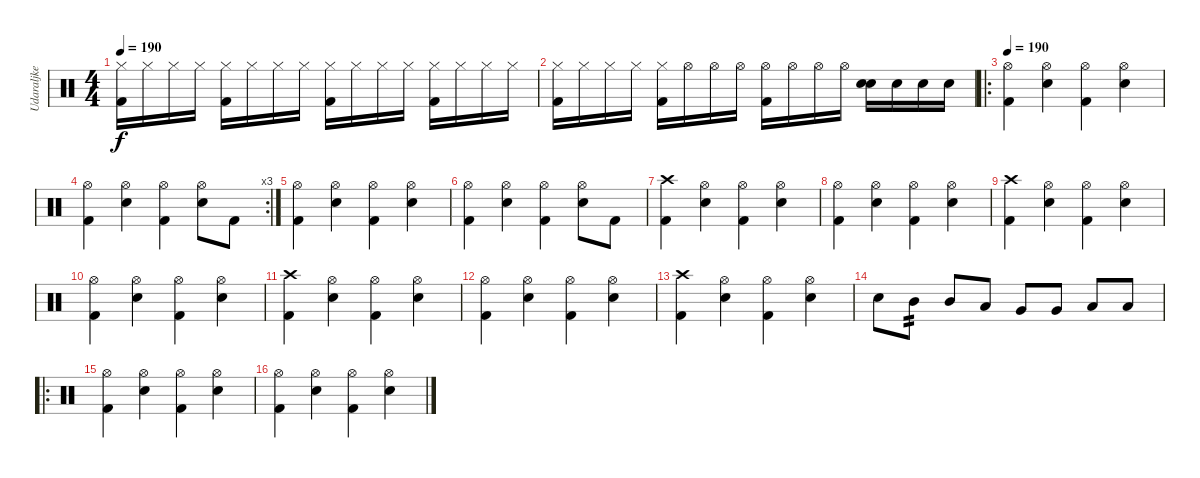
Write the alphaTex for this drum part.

\track ("Udaraljke" "Udaraljke") {instrument percussion}
\staff {score}
\articulation defaults
\ts (4 4)
\tempo 190
\clef neutral
\ks c
("Kick (hit) 2" "Hi-Hat (closed)").16{dy f} "Hi-Hat (closed)".16 "Hi-Hat (closed)".16 "Hi-Hat (closed)".16 ("Kick (hit) 2" "Hi-Hat (closed)").16 "Hi-Hat (closed)".16 "Hi-Hat (closed)".16 "Hi-Hat (closed)".16 ("Kick (hit) 2" "Hi-Hat (closed)").16 "Hi-Hat (closed)".16 "Hi-Hat (closed)".16 "Hi-Hat (closed)".16 ("Kick (hit) 2" "Hi-Hat (closed)").16 "Hi-Hat (closed)".16 "Hi-Hat (closed)".16 "Hi-Hat (closed)".16 |
("Kick (hit) 2" "Hi-Hat (closed)").16 "Hi-Hat (closed)".16 "Hi-Hat (closed)".16 "Hi-Hat (closed)".16 ("Kick (hit) 2" "Hi-Hat (closed)").16 "Hi-Hat (open)".16 "Hi-Hat (open)".16 "Hi-Hat (open)".16 ("Kick (hit) 2" "Hi-Hat (open)").16 "Hi-Hat (open)".16 "Hi-Hat (open)".16 "Hi-Hat (open)".16 ("Electric Snare (hit)" "Electric Snare (hit)").16 "Electric Snare (hit)".16 "Electric Snare (hit)".16 "Electric Snare (hit)".16 |
\ro
\tempo 190
("Hi-Hat (open)" "Kick (hit) 2").4 ("Hi-Hat (open)" "Electric Snare (hit)").4 ("Hi-Hat (open)" "Kick (hit) 2").4 ("Hi-Hat (open)" "Electric Snare (hit)").4 |
\rc 3
("Hi-Hat (open)" "Kick (hit) 2").4 ("Hi-Hat (open)" "Electric Snare (hit)").4 ("Hi-Hat (open)" "Kick (hit) 2").4 ("Hi-Hat (open)" "Electric Snare (hit)").8 "Kick (hit) 2".8 |
("Hi-Hat (open)" "Kick (hit) 2").4 ("Hi-Hat (open)" "Electric Snare (hit)").4 ("Hi-Hat (open)" "Kick (hit) 2").4 ("Hi-Hat (open)" "Electric Snare (hit)").4 |
("Hi-Hat (open)" "Kick (hit) 2").4 ("Hi-Hat (open)" "Electric Snare (hit)").4 ("Hi-Hat (open)" "Kick (hit) 2").4 ("Hi-Hat (open)" "Electric Snare (hit)").8 "Kick (hit) 2".8 |
("Crash high (hit)" "Kick (hit) 2").4 ("Hi-Hat (open)" "Electric Snare (hit)").4 ("Hi-Hat (open)" "Kick (hit) 2").4 ("Hi-Hat (open)" "Electric Snare (hit)").4 |
("Hi-Hat (open)" "Kick (hit) 2").4 ("Hi-Hat (open)" "Electric Snare (hit)").4 ("Hi-Hat (open)" "Kick (hit) 2").4 ("Hi-Hat (open)" "Electric Snare (hit)").4 |
("Crash high (hit)" "Kick (hit) 2").4 ("Hi-Hat (open)" "Electric Snare (hit)").4 ("Hi-Hat (open)" "Kick (hit) 2").4 ("Hi-Hat (open)" "Electric Snare (hit)").4 |
("Hi-Hat (open)" "Kick (hit) 2").4 ("Hi-Hat (open)" "Electric Snare (hit)").4 ("Hi-Hat (open)" "Kick (hit) 2").4 ("Hi-Hat (open)" "Electric Snare (hit)").4 |
("Crash high (hit)" "Kick (hit) 2").4 ("Hi-Hat (open)" "Electric Snare (hit)").4 ("Hi-Hat (open)" "Kick (hit) 2").4 ("Hi-Hat (open)" "Electric Snare (hit)").4 |
("Hi-Hat (open)" "Kick (hit) 2").4 ("Hi-Hat (open)" "Electric Snare (hit)").4 ("Hi-Hat (open)" "Kick (hit) 2").4 ("Hi-Hat (open)" "Electric Snare (hit)").4 |
("Crash high (hit)" "Kick (hit) 2").4 ("Hi-Hat (open)" "Electric Snare (hit)").4 ("Hi-Hat (open)" "Kick (hit) 2").4 ("Hi-Hat (open)" "Electric Snare (hit)").4 |
"Electric Snare (hit)".8 "Mid Tom (hit)".8{tp 2} "Mid Tom (hit)".8 "Low Tom (hit)".8 "Very Low Tom (hit)".8 "Very Low Tom (hit)".8 "Low Floor Tom (hit)".8 "Low Floor Tom (hit)".8 |
\ro
("Kick (hit) 2" "Hi-Hat (open)").4 ("Electric Snare (hit)" "Hi-Hat (open)").4 ("Kick (hit) 2" "Hi-Hat (open)").4 ("Electric Snare (hit)" "Hi-Hat (open)").4 |
("Hi-Hat (open)" "Kick (hit) 2").4 ("Hi-Hat (open)" "Electric Snare (hit)").4 ("Hi-Hat (open)" "Kick (hit) 2").4 ("Hi-Hat (open)" "Electric Snare (hit)").4
